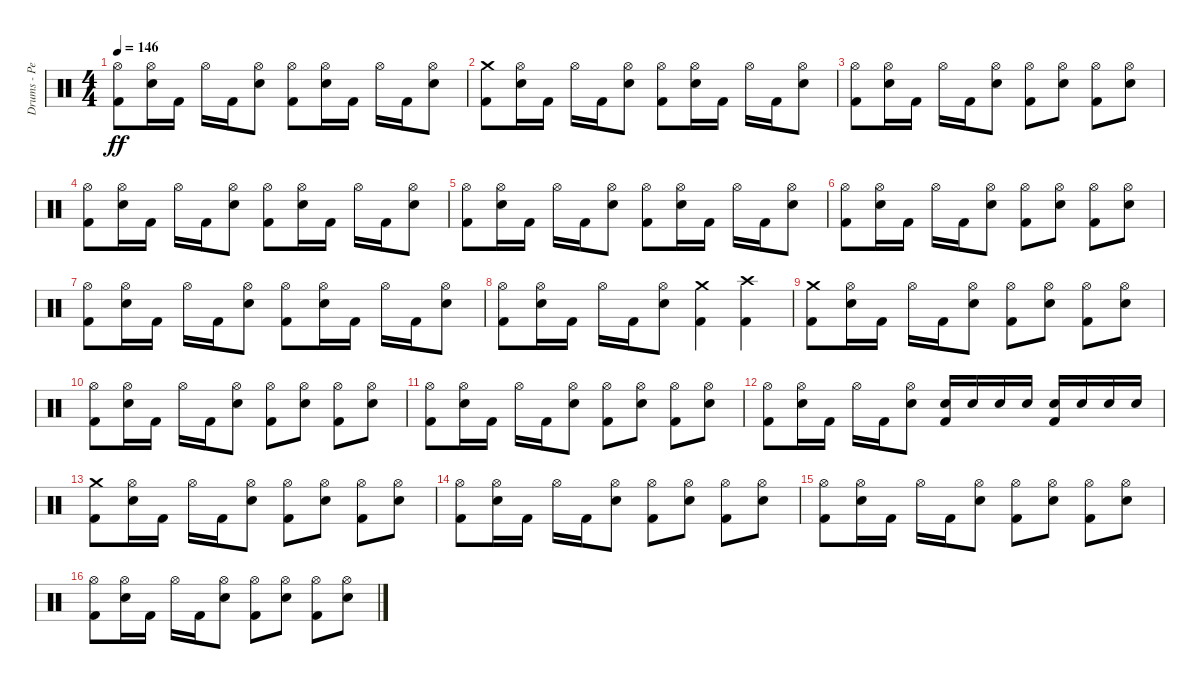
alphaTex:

\track ("Drums - Pete Finestone" "Drums - Pe") {instrument percussion}
\staff {score}
\articulation defaults
\ts (4 4)
\tempo 146
\clef neutral
\ks c
("Kick (hit) 2" "Hi-Hat (open)").8{dy ff} ("Electric Snare (hit)" "Hi-Hat (open)").16 "Kick (hit) 2".16 "Hi-Hat (open)".16 "Kick (hit) 2".16 ("Electric Snare (hit)" "Hi-Hat (open)").8 ("Kick (hit) 2" "Hi-Hat (open)").8 ("Electric Snare (hit)" "Hi-Hat (open)").16 "Kick (hit) 2".16 "Hi-Hat (open)".16 "Kick (hit) 2".16 ("Electric Snare (hit)" "Hi-Hat (open)").8 |
("Kick (hit) 2" "Crash medium (hit)").8 ("Electric Snare (hit)" "Hi-Hat (open)").16 "Kick (hit) 2".16 "Hi-Hat (open)".16 "Kick (hit) 2".16 ("Electric Snare (hit)" "Hi-Hat (open)").8 ("Kick (hit) 2" "Hi-Hat (open)").8 ("Electric Snare (hit)" "Hi-Hat (open)").16 "Kick (hit) 2".16 "Hi-Hat (open)".16 "Kick (hit) 2".16 ("Electric Snare (hit)" "Hi-Hat (open)").8 |
("Kick (hit) 2" "Hi-Hat (open)").8 ("Electric Snare (hit)" "Hi-Hat (open)").16 "Kick (hit) 2".16 "Hi-Hat (open)".16 "Kick (hit) 2".16 ("Electric Snare (hit)" "Hi-Hat (open)").8 ("Kick (hit) 2" "Hi-Hat (open)").8 ("Electric Snare (hit)" "Hi-Hat (open)").8 ("Kick (hit) 2" "Hi-Hat (open)").8 ("Electric Snare (hit)" "Hi-Hat (open)").8 |
("Kick (hit) 2" "Hi-Hat (open)").8 ("Electric Snare (hit)" "Hi-Hat (open)").16 "Kick (hit) 2".16 "Hi-Hat (open)".16 "Kick (hit) 2".16 ("Electric Snare (hit)" "Hi-Hat (open)").8 ("Kick (hit) 2" "Hi-Hat (open)").8 ("Electric Snare (hit)" "Hi-Hat (open)").16 "Kick (hit) 2".16 "Hi-Hat (open)".16 "Kick (hit) 2".16 ("Electric Snare (hit)" "Hi-Hat (open)").8 |
("Kick (hit) 2" "Hi-Hat (open)").8 ("Electric Snare (hit)" "Hi-Hat (open)").16 "Kick (hit) 2".16 "Hi-Hat (open)".16 "Kick (hit) 2".16 ("Electric Snare (hit)" "Hi-Hat (open)").8 ("Kick (hit) 2" "Hi-Hat (open)").8 ("Electric Snare (hit)" "Hi-Hat (open)").16 "Kick (hit) 2".16 "Hi-Hat (open)".16 "Kick (hit) 2".16 ("Electric Snare (hit)" "Hi-Hat (open)").8 |
("Kick (hit) 2" "Hi-Hat (open)").8 ("Electric Snare (hit)" "Hi-Hat (open)").16 "Kick (hit) 2".16 "Hi-Hat (open)".16 "Kick (hit) 2".16 ("Electric Snare (hit)" "Hi-Hat (open)").8 ("Kick (hit) 2" "Hi-Hat (open)").8 ("Electric Snare (hit)" "Hi-Hat (open)").8 ("Kick (hit) 2" "Hi-Hat (open)").8 ("Electric Snare (hit)" "Hi-Hat (open)").8 |
("Kick (hit) 2" "Hi-Hat (open)").8 ("Electric Snare (hit)" "Hi-Hat (open)").16 "Kick (hit) 2".16 "Hi-Hat (open)".16 "Kick (hit) 2".16 ("Electric Snare (hit)" "Hi-Hat (open)").8 ("Kick (hit) 2" "Hi-Hat (open)").8 ("Electric Snare (hit)" "Hi-Hat (open)").16 "Kick (hit) 2".16 "Hi-Hat (open)".16 "Kick (hit) 2".16 ("Electric Snare (hit)" "Hi-Hat (open)").8 |
("Kick (hit) 2" "Hi-Hat (open)").8 ("Electric Snare (hit)" "Hi-Hat (open)").16 "Kick (hit) 2".16 "Hi-Hat (open)".16 "Kick (hit) 2".16 ("Electric Snare (hit)" "Hi-Hat (open)").8 ("Kick (hit) 2" "Crash medium (hit)").4 ("Kick (hit) 2" "Crash high (hit)").4 |
("Crash medium (hit)" "Kick (hit) 2").8 ("Electric Snare (hit)" "Hi-Hat (open)").16 "Kick (hit) 2".16 "Hi-Hat (open)".16 "Kick (hit) 2".16 ("Electric Snare (hit)" "Hi-Hat (open)").8 ("Kick (hit) 2" "Hi-Hat (open)").8 ("Electric Snare (hit)" "Hi-Hat (open)").8 ("Kick (hit) 2" "Hi-Hat (open)").8 ("Electric Snare (hit)" "Hi-Hat (open)").8 |
("Kick (hit) 2" "Hi-Hat (open)").8 ("Electric Snare (hit)" "Hi-Hat (open)").16 "Kick (hit) 2".16 "Hi-Hat (open)".16 "Kick (hit) 2".16 ("Electric Snare (hit)" "Hi-Hat (open)").8 ("Kick (hit) 2" "Hi-Hat (open)").8 ("Electric Snare (hit)" "Hi-Hat (open)").8 ("Kick (hit) 2" "Hi-Hat (open)").8 ("Electric Snare (hit)" "Hi-Hat (open)").8 |
("Hi-Hat (open)" "Kick (hit) 2").8 ("Hi-Hat (open)" "Electric Snare (hit)").16 "Kick (hit) 2".16 "Hi-Hat (open)".16 "Kick (hit) 2".16 ("Hi-Hat (open)" "Electric Snare (hit)").8 ("Hi-Hat (open)" "Kick (hit) 2").8 ("Hi-Hat (open)" "Electric Snare (hit)").8 ("Hi-Hat (open)" "Kick (hit) 2").8 ("Hi-Hat (open)" "Electric Snare (hit)").8 |
("Kick (hit) 2" "Hi-Hat (open)").8 ("Electric Snare (hit)" "Hi-Hat (open)").16 "Kick (hit) 2".16 "Hi-Hat (open)".16 "Kick (hit) 2".16 ("Electric Snare (hit)" "Hi-Hat (open)").8 ("Kick (hit) 2" "Electric Snare (hit)").16 "Electric Snare (hit)".16 "Electric Snare (hit)".16 "Electric Snare (hit)".16 ("Kick (hit) 2" "Electric Snare (hit)").16 "Electric Snare (hit)".16 "Electric Snare (hit)".16 "Electric Snare (hit)".16 |
("Crash medium (hit)" "Kick (hit) 2").8 ("Electric Snare (hit)" "Hi-Hat (open)").16 "Kick (hit) 2".16 "Hi-Hat (open)".16 "Kick (hit) 2".16 ("Electric Snare (hit)" "Hi-Hat (open)").8 ("Kick (hit) 2" "Hi-Hat (open)").8 ("Electric Snare (hit)" "Hi-Hat (open)").8 ("Kick (hit) 2" "Hi-Hat (open)").8 ("Electric Snare (hit)" "Hi-Hat (open)").8 |
("Kick (hit) 2" "Hi-Hat (open)").8 ("Electric Snare (hit)" "Hi-Hat (open)").16 "Kick (hit) 2".16 "Hi-Hat (open)".16 "Kick (hit) 2".16 ("Electric Snare (hit)" "Hi-Hat (open)").8 ("Kick (hit) 2" "Hi-Hat (open)").8 ("Electric Snare (hit)" "Hi-Hat (open)").8 ("Kick (hit) 2" "Hi-Hat (open)").8 ("Electric Snare (hit)" "Hi-Hat (open)").8 |
("Hi-Hat (open)" "Kick (hit) 2").8 ("Hi-Hat (open)" "Electric Snare (hit)").16 "Kick (hit) 2".16 "Hi-Hat (open)".16 "Kick (hit) 2".16 ("Hi-Hat (open)" "Electric Snare (hit)").8 ("Hi-Hat (open)" "Kick (hit) 2").8 ("Hi-Hat (open)" "Electric Snare (hit)").8 ("Hi-Hat (open)" "Kick (hit) 2").8 ("Hi-Hat (open)" "Electric Snare (hit)").8 |
("Kick (hit) 2" "Hi-Hat (open)").8 ("Electric Snare (hit)" "Hi-Hat (open)").16 "Kick (hit) 2".16 "Hi-Hat (open)".16 "Kick (hit) 2".16 ("Electric Snare (hit)" "Hi-Hat (open)").8 ("Kick (hit) 2" "Hi-Hat (open)").8 ("Electric Snare (hit)" "Hi-Hat (open)").8 ("Kick (hit) 2" "Hi-Hat (open)").8 ("Electric Snare (hit)" "Hi-Hat (open)").8
